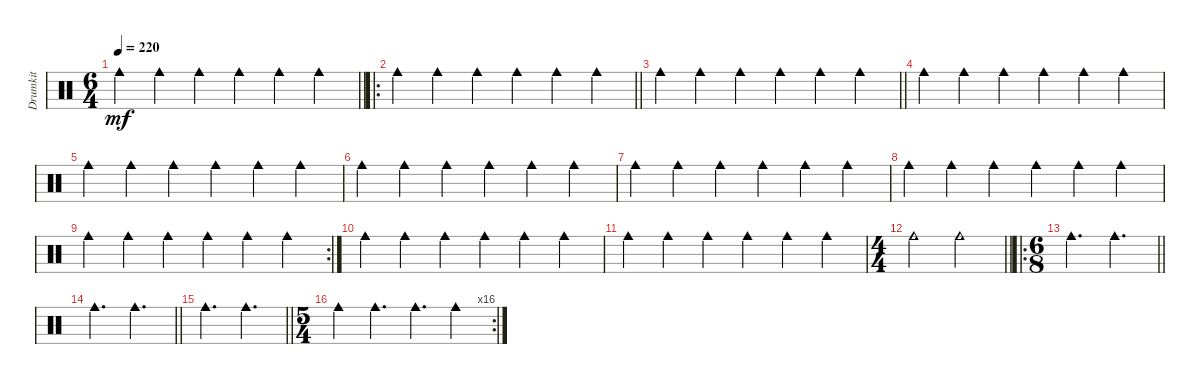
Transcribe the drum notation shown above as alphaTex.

\track ("Drumkit" "Drumkit") {instrument percussion}
\staff {score}
\articulation defaults
\ts (6 4)
\tempo 220
\clef neutral
\barLineRight lightlight
\ks c "Cowbell medium (hit)".4{dy mf} "Cowbell medium (hit)".4 "Cowbell medium (hit)".4 "Cowbell medium (hit)".4 "Cowbell medium (hit)".4 "Cowbell medium (hit)".4
|
\ro
\section ("" "")
\barLineRight lightlight "Cowbell medium (hit)".4 "Cowbell medium (hit)".4 "Cowbell medium (hit)".4 "Cowbell medium (hit)".4 "Cowbell medium (hit)".4 "Cowbell medium (hit)".4
|
\section ("" "")
\barLineRight lightlight "Cowbell medium (hit)".4 "Cowbell medium (hit)".4 "Cowbell medium (hit)".4 "Cowbell medium (hit)".4 "Cowbell medium (hit)".4 "Cowbell medium (hit)".4
|
\section ("" "")
"Cowbell medium (hit)".4 "Cowbell medium (hit)".4 "Cowbell medium (hit)".4 "Cowbell medium (hit)".4 "Cowbell medium (hit)".4 "Cowbell medium (hit)".4 |
"Cowbell medium (hit)".4 "Cowbell medium (hit)".4 "Cowbell medium (hit)".4 "Cowbell medium (hit)".4 "Cowbell medium (hit)".4 "Cowbell medium (hit)".4 |
"Cowbell medium (hit)".4 "Cowbell medium (hit)".4 "Cowbell medium (hit)".4 "Cowbell medium (hit)".4 "Cowbell medium (hit)".4 "Cowbell medium (hit)".4 |
"Cowbell medium (hit)".4 "Cowbell medium (hit)".4 "Cowbell medium (hit)".4 "Cowbell medium (hit)".4 "Cowbell medium (hit)".4 "Cowbell medium (hit)".4 |
"Cowbell medium (hit)".4 "Cowbell medium (hit)".4 "Cowbell medium (hit)".4 "Cowbell medium (hit)".4 "Cowbell medium (hit)".4 "Cowbell medium (hit)".4 |
\rc 2 "Cowbell medium (hit)".4 "Cowbell medium (hit)".4 "Cowbell medium (hit)".4 "Cowbell medium (hit)".4 "Cowbell medium (hit)".4 "Cowbell medium (hit)".4
|
"Cowbell medium (hit)".4 "Cowbell medium (hit)".4 "Cowbell medium (hit)".4 "Cowbell medium (hit)".4 "Cowbell medium (hit)".4 "Cowbell medium (hit)".4 |
"Cowbell medium (hit)".4 "Cowbell medium (hit)".4 "Cowbell medium (hit)".4 "Cowbell medium (hit)".4 "Cowbell medium (hit)".4 "Cowbell medium (hit)".4 |
\ts (4 4)
\barLineRight lightlight "Cowbell medium (hit)".2 "Cowbell medium (hit)".2
|
\ro
\ts (6 8)
\section ("" "")
\barLineRight lightlight "Cowbell medium (hit)".4{d} "Cowbell medium (hit)".4{d}
|
\section ("" "")
\barLineRight lightlight "Cowbell medium (hit)".4{d} "Cowbell medium (hit)".4{d}
|
\section ("" "")
\barLineRight lightlight "Cowbell medium (hit)".4{d} "Cowbell medium (hit)".4{d}
|
\rc 16
\ts (5 4)
\section ("" "")
"Cowbell medium (hit)".4 "Cowbell medium (hit)".4{d} "Cowbell medium (hit)".4{d} "Cowbell medium (hit)".4
